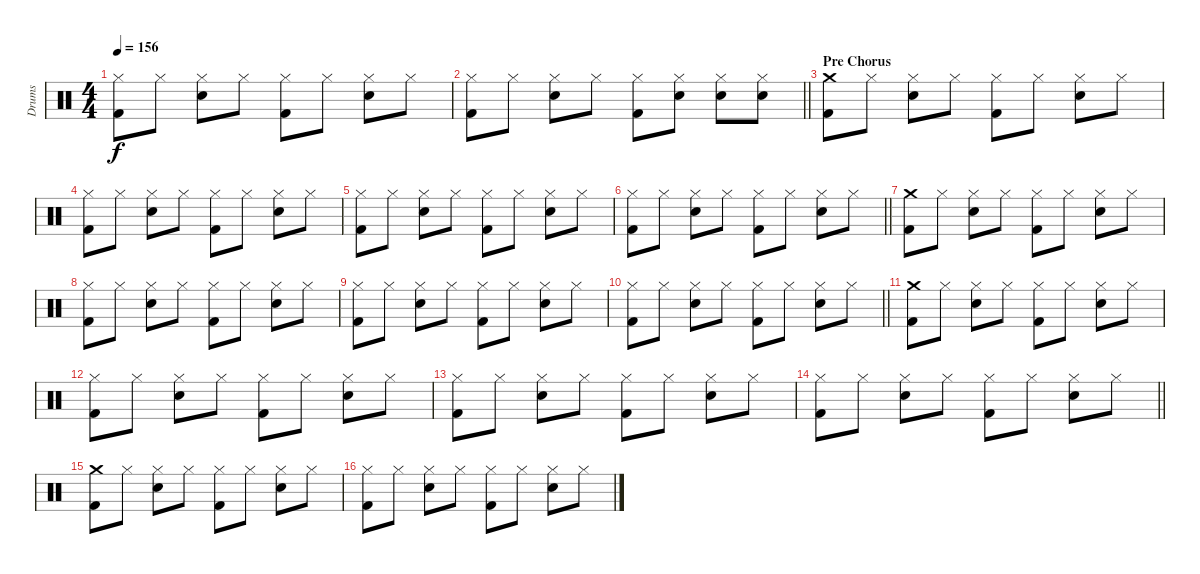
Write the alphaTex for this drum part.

\track ("Drums" "Drums") {instrument percussion}
\staff {score}
\articulation defaults
\ts (4 4)
\tempo 156
\clef neutral
\ks c
("Hi-Hat (closed)" "Kick (hit) 2").8{dy f} "Hi-Hat (closed)".8 ("Hi-Hat (closed)" "Electric Snare (hit)").8 "Hi-Hat (closed)".8 ("Hi-Hat (closed)" "Kick (hit) 2").8 "Hi-Hat (closed)".8 ("Hi-Hat (closed)" "Electric Snare (hit)").8 "Hi-Hat (closed)".8 |
\barLineRight lightlight
("Hi-Hat (closed)" "Kick (hit) 2").8 "Hi-Hat (closed)".8 ("Hi-Hat (closed)" "Electric Snare (hit)").8 "Hi-Hat (closed)".8 ("Hi-Hat (closed)" "Kick (hit) 2").8 ("Hi-Hat (closed)" "Electric Snare (hit)").8 ("Hi-Hat (closed)" "Electric Snare (hit)").8 ("Hi-Hat (closed)" "Electric Snare (hit)").8 |
\section ("" "Pre Chorus")
("Crash medium (hit)" "Kick (hit) 2").8 "Hi-Hat (closed)".8 ("Hi-Hat (closed)" "Electric Snare (hit)").8 "Hi-Hat (closed)".8 ("Hi-Hat (closed)" "Kick (hit) 2").8 "Hi-Hat (closed)".8 ("Hi-Hat (closed)" "Electric Snare (hit)").8 "Hi-Hat (closed)".8 |
("Hi-Hat (closed)" "Kick (hit) 2").8 "Hi-Hat (closed)".8 ("Hi-Hat (closed)" "Electric Snare (hit)").8 "Hi-Hat (closed)".8 ("Hi-Hat (closed)" "Kick (hit) 2").8 "Hi-Hat (closed)".8 ("Hi-Hat (closed)" "Electric Snare (hit)").8 "Hi-Hat (closed)".8 |
("Hi-Hat (closed)" "Kick (hit) 2").8 "Hi-Hat (closed)".8 ("Hi-Hat (closed)" "Electric Snare (hit)").8 "Hi-Hat (closed)".8 ("Hi-Hat (closed)" "Kick (hit) 2").8 "Hi-Hat (closed)".8 ("Hi-Hat (closed)" "Electric Snare (hit)").8 "Hi-Hat (closed)".8 |
\barLineRight lightlight
("Hi-Hat (closed)" "Kick (hit) 2").8 "Hi-Hat (closed)".8 ("Hi-Hat (closed)" "Electric Snare (hit)").8 "Hi-Hat (closed)".8 ("Hi-Hat (closed)" "Kick (hit) 2").8 "Hi-Hat (closed)".8 ("Hi-Hat (closed)" "Electric Snare (hit)").8 "Hi-Hat (closed)".8 |
("Crash medium (hit)" "Kick (hit) 2").8 "Hi-Hat (closed)".8 ("Hi-Hat (closed)" "Electric Snare (hit)").8 "Hi-Hat (closed)".8 ("Hi-Hat (closed)" "Kick (hit) 2").8 "Hi-Hat (closed)".8 ("Hi-Hat (closed)" "Electric Snare (hit)").8 "Hi-Hat (closed)".8 |
("Hi-Hat (closed)" "Kick (hit) 2").8 "Hi-Hat (closed)".8 ("Hi-Hat (closed)" "Electric Snare (hit)").8 "Hi-Hat (closed)".8 ("Hi-Hat (closed)" "Kick (hit) 2").8 "Hi-Hat (closed)".8 ("Hi-Hat (closed)" "Electric Snare (hit)").8 "Hi-Hat (closed)".8 |
("Hi-Hat (closed)" "Kick (hit) 2").8 "Hi-Hat (closed)".8 ("Hi-Hat (closed)" "Electric Snare (hit)").8 "Hi-Hat (closed)".8 ("Hi-Hat (closed)" "Kick (hit) 2").8 "Hi-Hat (closed)".8 ("Hi-Hat (closed)" "Electric Snare (hit)").8 "Hi-Hat (closed)".8 |
\barLineRight lightlight
("Hi-Hat (closed)" "Kick (hit) 2").8 "Hi-Hat (closed)".8 ("Hi-Hat (closed)" "Electric Snare (hit)").8 "Hi-Hat (closed)".8 ("Hi-Hat (closed)" "Kick (hit) 2").8 "Hi-Hat (closed)".8 ("Hi-Hat (closed)" "Electric Snare (hit)").8 "Hi-Hat (closed)".8 |
("Crash medium (hit)" "Kick (hit) 2").8 "Hi-Hat (closed)".8 ("Hi-Hat (closed)" "Electric Snare (hit)").8 "Hi-Hat (closed)".8 ("Hi-Hat (closed)" "Kick (hit) 2").8 "Hi-Hat (closed)".8 ("Hi-Hat (closed)" "Electric Snare (hit)").8 "Hi-Hat (closed)".8 |
("Hi-Hat (closed)" "Kick (hit) 2").8 "Hi-Hat (closed)".8 ("Hi-Hat (closed)" "Electric Snare (hit)").8 "Hi-Hat (closed)".8 ("Hi-Hat (closed)" "Kick (hit) 2").8 "Hi-Hat (closed)".8 ("Hi-Hat (closed)" "Electric Snare (hit)").8 "Hi-Hat (closed)".8 |
("Hi-Hat (closed)" "Kick (hit) 2").8 "Hi-Hat (closed)".8 ("Hi-Hat (closed)" "Electric Snare (hit)").8 "Hi-Hat (closed)".8 ("Hi-Hat (closed)" "Kick (hit) 2").8 "Hi-Hat (closed)".8 ("Hi-Hat (closed)" "Electric Snare (hit)").8 "Hi-Hat (closed)".8 |
\barLineRight lightlight
("Hi-Hat (closed)" "Kick (hit) 2").8 "Hi-Hat (closed)".8 ("Hi-Hat (closed)" "Electric Snare (hit)").8 "Hi-Hat (closed)".8 ("Hi-Hat (closed)" "Kick (hit) 2").8 "Hi-Hat (closed)".8 ("Hi-Hat (closed)" "Electric Snare (hit)").8 "Hi-Hat (closed)".8 |
("Crash medium (hit)" "Kick (hit) 2").8 "Hi-Hat (closed)".8 ("Hi-Hat (closed)" "Electric Snare (hit)").8 "Hi-Hat (closed)".8 ("Hi-Hat (closed)" "Kick (hit) 2").8 "Hi-Hat (closed)".8 ("Hi-Hat (closed)" "Electric Snare (hit)").8 "Hi-Hat (closed)".8 |
("Hi-Hat (closed)" "Kick (hit) 2").8 "Hi-Hat (closed)".8 ("Hi-Hat (closed)" "Electric Snare (hit)").8 "Hi-Hat (closed)".8 ("Hi-Hat (closed)" "Kick (hit) 2").8 "Hi-Hat (closed)".8 ("Hi-Hat (closed)" "Electric Snare (hit)").8 "Hi-Hat (closed)".8
